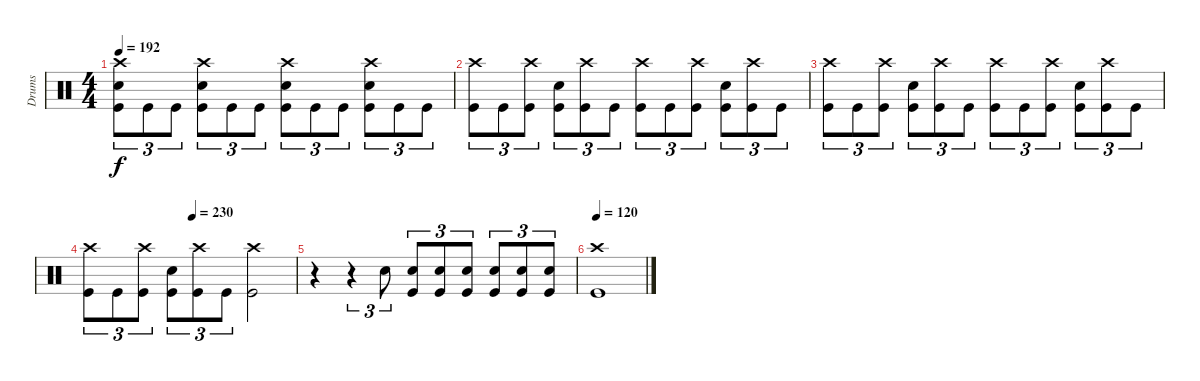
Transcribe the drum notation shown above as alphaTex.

\track ("Drums" "Drums") {instrument percussion}
\staff {score}
\articulation defaults
\ts (4 4)
\tempo 192
\clef neutral
\ks c
("Snare (hit) 2" "Kick (hit)" "Crash high (hit)").8{tu (3 2) dy f} "Kick (hit)".8{tu (3 2)} "Kick (hit)".8{tu (3 2)} ("Snare (hit) 2" "Kick (hit)" "Crash high (hit)").8{tu (3 2)} "Kick (hit)".8{tu (3 2)} "Kick (hit)".8{tu (3 2)} ("Snare (hit) 2" "Kick (hit)" "Crash high (hit)").8{tu (3 2)} "Kick (hit)".8{tu (3 2)} "Kick (hit)".8{tu (3 2)} ("Snare (hit) 2" "Kick (hit)" "Crash high (hit)").8{tu (3 2)} "Kick (hit)".8{tu (3 2)} "Kick (hit)".8{tu (3 2)} |
("Kick (hit)" "Crash high (hit)").8{tu (3 2)} "Kick (hit)".8{tu (3 2)} ("Kick (hit)" "Crash high (hit)").8{tu (3 2)} ("Snare (hit) 2" "Kick (hit)").8{tu (3 2)} ("Kick (hit)" "Crash high (hit)").8{tu (3 2)} "Kick (hit)".8{tu (3 2)} ("Kick (hit)" "Crash high (hit)").8{tu (3 2)} "Kick (hit)".8{tu (3 2)} ("Kick (hit)" "Crash high (hit)").8{tu (3 2)} ("Snare (hit) 2" "Kick (hit)").8{tu (3 2)} ("Kick (hit)" "Crash high (hit)").8{tu (3 2)} "Kick (hit)".8{tu (3 2)} |
("Kick (hit)" "Crash high (hit)").8{tu (3 2)} "Kick (hit)".8{tu (3 2)} ("Kick (hit)" "Crash high (hit)").8{tu (3 2)} ("Snare (hit) 2" "Kick (hit)").8{tu (3 2)} ("Kick (hit)" "Crash high (hit)").8{tu (3 2)} "Kick (hit)".8{tu (3 2)} ("Kick (hit)" "Crash high (hit)").8{tu (3 2)} "Kick (hit)".8{tu (3 2)} ("Kick (hit)" "Crash high (hit)").8{tu (3 2)} ("Snare (hit) 2" "Kick (hit)").8{tu (3 2)} ("Kick (hit)" "Crash high (hit)").8{tu (3 2)} "Kick (hit)".8{tu (3 2)} |
\tempo (230 0.5)
("Kick (hit)" "Crash high (hit)").8{tu (3 2)} "Kick (hit)".8{tu (3 2)} ("Kick (hit)" "Crash high (hit)").8{tu (3 2)} ("Snare (hit) 2" "Kick (hit)").8{tu (3 2)} ("Kick (hit)" "Crash high (hit)").8{tu (3 2)} "Kick (hit)".8{tu (3 2)} ("Kick (hit)" "Crash high (hit)").2 |
r.4 r.4{tu (3 2)} "Snare (hit) 2".8{tu (3 2)} ("Snare (hit) 2" "Kick (hit)").8{tu (3 2)} ("Snare (hit) 2" "Kick (hit)").8{tu (3 2)} ("Snare (hit) 2" "Kick (hit)").8{tu (3 2)} ("Snare (hit) 2" "Kick (hit)").8{tu (3 2)} ("Snare (hit) 2" "Kick (hit)").8{tu (3 2)} ("Snare (hit) 2" "Kick (hit)").8{tu (3 2)} |
\tempo 120
("Kick (hit)" "Crash high (hit)").1
